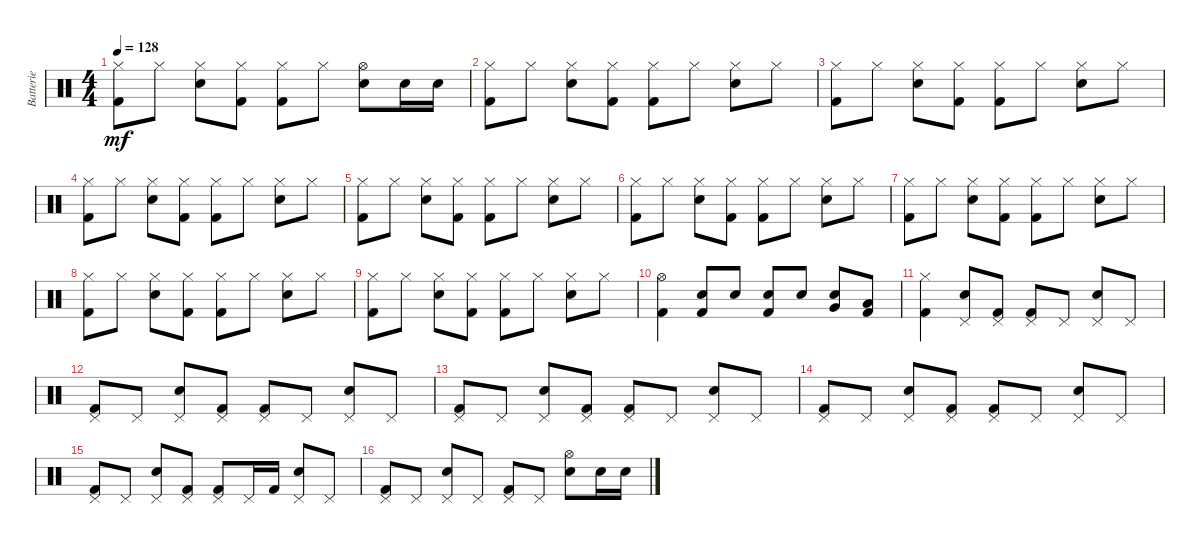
\track ("Batterie" "Batterie") {instrument percussion}
\staff {score}
\articulation defaults
\ts (4 4)
\tempo 128
\clef neutral
\ks c
("Hi-Hat (closed)" "Kick (hit) 2").8{dy mf} "Hi-Hat (closed)".8 ("Hi-Hat (closed)" "Snare (hit) 2").8 ("Hi-Hat (closed)" "Kick (hit) 2").8 ("Hi-Hat (closed)" "Kick (hit) 2").8 "Hi-Hat (closed)".8 ("Hi-Hat (open)" "Snare (hit) 2").8 "Snare (hit) 2".16 "Snare (hit) 2".16 |
("Hi-Hat (closed)" "Kick (hit) 2").8 "Hi-Hat (closed)".8 ("Hi-Hat (closed)" "Snare (hit) 2").8 ("Hi-Hat (closed)" "Kick (hit) 2").8 ("Hi-Hat (closed)" "Kick (hit) 2").8 "Hi-Hat (closed)".8 ("Hi-Hat (closed)" "Snare (hit) 2").8 "Hi-Hat (closed)".8 |
("Hi-Hat (closed)" "Kick (hit) 2").8 "Hi-Hat (closed)".8 ("Hi-Hat (closed)" "Snare (hit) 2").8 ("Hi-Hat (closed)" "Kick (hit) 2").8 ("Hi-Hat (closed)" "Kick (hit) 2").8 "Hi-Hat (closed)".8 ("Hi-Hat (closed)" "Snare (hit) 2").8 "Hi-Hat (closed)".8 |
("Hi-Hat (closed)" "Kick (hit) 2").8 "Hi-Hat (closed)".8 ("Hi-Hat (closed)" "Snare (hit) 2").8 ("Hi-Hat (closed)" "Kick (hit) 2").8 ("Hi-Hat (closed)" "Kick (hit) 2").8 "Hi-Hat (closed)".8 ("Hi-Hat (closed)" "Snare (hit) 2").8 "Hi-Hat (closed)".8 |
("Hi-Hat (closed)" "Kick (hit) 2").8 "Hi-Hat (closed)".8 ("Hi-Hat (closed)" "Snare (hit) 2").8 ("Hi-Hat (closed)" "Kick (hit) 2").8 ("Hi-Hat (closed)" "Kick (hit) 2").8 "Hi-Hat (closed)".8 ("Hi-Hat (closed)" "Snare (hit) 2").8 "Hi-Hat (closed)".8 |
("Hi-Hat (closed)" "Kick (hit) 2").8 "Hi-Hat (closed)".8 ("Hi-Hat (closed)" "Snare (hit) 2").8 ("Hi-Hat (closed)" "Kick (hit) 2").8 ("Hi-Hat (closed)" "Kick (hit) 2").8 "Hi-Hat (closed)".8 ("Hi-Hat (closed)" "Snare (hit) 2").8 "Hi-Hat (closed)".8 |
("Hi-Hat (closed)" "Kick (hit) 2").8 "Hi-Hat (closed)".8 ("Hi-Hat (closed)" "Snare (hit) 2").8 ("Hi-Hat (closed)" "Kick (hit) 2").8 ("Hi-Hat (closed)" "Kick (hit) 2").8 "Hi-Hat (closed)".8 ("Hi-Hat (closed)" "Snare (hit) 2").8 "Hi-Hat (closed)".8 |
("Hi-Hat (closed)" "Kick (hit) 2").8 "Hi-Hat (closed)".8 ("Hi-Hat (closed)" "Snare (hit) 2").8 ("Hi-Hat (closed)" "Kick (hit) 2").8 ("Hi-Hat (closed)" "Kick (hit) 2").8 "Hi-Hat (closed)".8 ("Hi-Hat (closed)" "Snare (hit) 2").8 "Hi-Hat (closed)".8 |
("Hi-Hat (closed)" "Kick (hit) 2").8 "Hi-Hat (closed)".8 ("Hi-Hat (closed)" "Snare (hit) 2").8 ("Hi-Hat (closed)" "Kick (hit) 2").8 ("Hi-Hat (closed)" "Kick (hit) 2").8 "Hi-Hat (closed)".8 ("Hi-Hat (closed)" "Snare (hit) 2").8 "Hi-Hat (closed)".8 |
("Hi-Hat (open)" "Kick (hit) 2").4 ("Snare (hit) 2" "Kick (hit) 2").8 "Snare (hit) 2".8 ("Snare (hit) 2" "Kick (hit) 2").8 "Snare (hit) 2".8 ("Very Low Tom (hit)" "Snare (hit) 2").8 ("Low Floor Tom (hit)" "Kick (hit) 2").8 |
("Hi-Hat (closed)" "Kick (hit) 2").4 ("Pedal Hi-Hat (hit)" "Snare (hit) 2").8 ("Pedal Hi-Hat (hit)" "Kick (hit) 2").8 ("Pedal Hi-Hat (hit)" "Kick (hit) 2").8 "Pedal Hi-Hat (hit)".8 ("Pedal Hi-Hat (hit)" "Snare (hit) 2").8 "Pedal Hi-Hat (hit)".8 |
("Pedal Hi-Hat (hit)" "Kick (hit) 2").8 "Pedal Hi-Hat (hit)".8 ("Pedal Hi-Hat (hit)" "Snare (hit) 2").8 ("Pedal Hi-Hat (hit)" "Kick (hit) 2").8 ("Pedal Hi-Hat (hit)" "Kick (hit) 2").8 "Pedal Hi-Hat (hit)".8 ("Pedal Hi-Hat (hit)" "Snare (hit) 2").8 "Pedal Hi-Hat (hit)".8 |
("Pedal Hi-Hat (hit)" "Kick (hit) 2").8 "Pedal Hi-Hat (hit)".8 ("Pedal Hi-Hat (hit)" "Snare (hit) 2").8 ("Pedal Hi-Hat (hit)" "Kick (hit) 2").8 ("Pedal Hi-Hat (hit)" "Kick (hit) 2").8 "Pedal Hi-Hat (hit)".8 ("Pedal Hi-Hat (hit)" "Snare (hit) 2").8 "Pedal Hi-Hat (hit)".8 |
("Pedal Hi-Hat (hit)" "Kick (hit) 2").8 "Pedal Hi-Hat (hit)".8 ("Pedal Hi-Hat (hit)" "Snare (hit) 2").8 ("Pedal Hi-Hat (hit)" "Kick (hit) 2").8 ("Pedal Hi-Hat (hit)" "Kick (hit) 2").8 "Pedal Hi-Hat (hit)".8 ("Pedal Hi-Hat (hit)" "Snare (hit) 2").8 "Pedal Hi-Hat (hit)".8 |
("Pedal Hi-Hat (hit)" "Kick (hit) 2").8 "Pedal Hi-Hat (hit)".8 ("Pedal Hi-Hat (hit)" "Snare (hit) 2").8 ("Pedal Hi-Hat (hit)" "Kick (hit) 2").8 ("Pedal Hi-Hat (hit)" "Kick (hit) 2").8 "Pedal Hi-Hat (hit)".16 "Kick (hit) 2".16 ("Pedal Hi-Hat (hit)" "Snare (hit) 2").8 "Pedal Hi-Hat (hit)".8 |
("Pedal Hi-Hat (hit)" "Kick (hit) 2").8 "Pedal Hi-Hat (hit)".8 ("Pedal Hi-Hat (hit)" "Snare (hit) 2").8 "Pedal Hi-Hat (hit)".8 ("Pedal Hi-Hat (hit)" "Kick (hit) 2").8 "Pedal Hi-Hat (hit)".8 ("Hi-Hat (open)" "Snare (hit) 2").8 "Snare (hit) 2".16 "Snare (hit) 2".16
